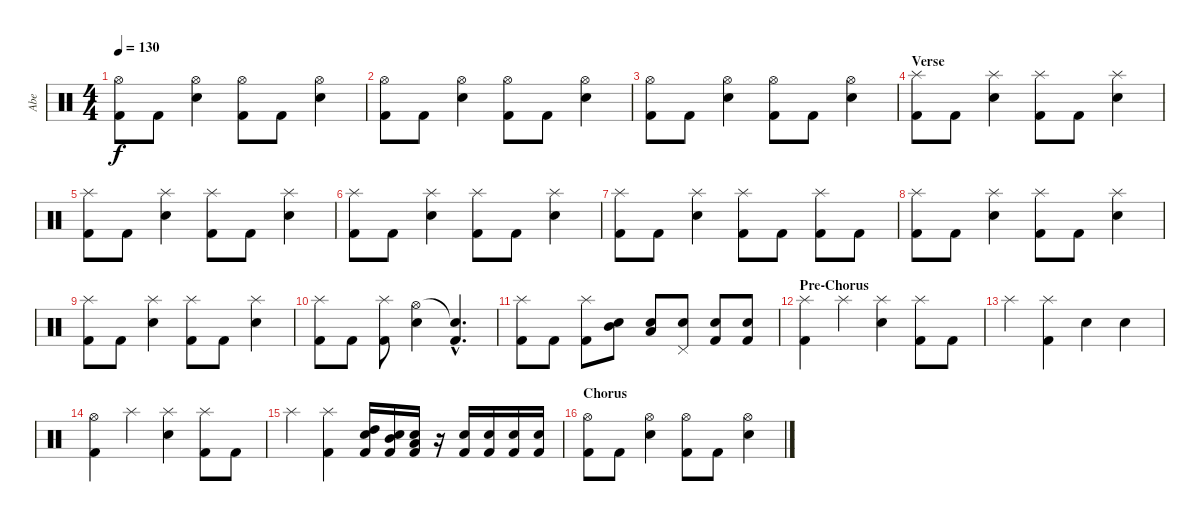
\track ("Abe" "Abe") {instrument percussion}
\staff {score}
\articulation defaults
\ts (4 4)
\tempo 130
\clef neutral
\ks c
("Hi-Hat (open)" "Kick (hit) 2").8{dy f} "Kick (hit) 2".8 ("Hi-Hat (open)" "Snare (hit) 2").4 ("Hi-Hat (open)" "Kick (hit) 2").8 "Kick (hit) 2".8 ("Hi-Hat (open)" "Snare (hit) 2").4 |
("Hi-Hat (open)" "Kick (hit) 2").8 "Kick (hit) 2".8 ("Hi-Hat (open)" "Snare (hit) 2").4 ("Hi-Hat (open)" "Kick (hit) 2").8 "Kick (hit) 2".8 ("Hi-Hat (open)" "Snare (hit) 2").4 |
("Hi-Hat (open)" "Kick (hit) 2").8 "Kick (hit) 2".8 ("Hi-Hat (open)" "Snare (hit) 2").4 ("Hi-Hat (open)" "Kick (hit) 2").8 "Kick (hit) 2".8 ("Hi-Hat (open)" "Snare (hit) 2").4 |
\section ("" "Verse")
("Splash (hit)" "Kick (hit) 2").8 "Kick (hit) 2".8 ("Splash (hit)" "Snare (hit) 2").4 ("Splash (hit)" "Kick (hit) 2").8 "Kick (hit) 2".8 ("Splash (hit)" "Snare (hit) 2").4 |
("Splash (hit)" "Kick (hit) 2").8 "Kick (hit) 2".8 ("Splash (hit)" "Snare (hit) 2").4 ("Splash (hit)" "Kick (hit) 2").8 "Kick (hit) 2".8 ("Splash (hit)" "Snare (hit) 2").4 |
("Splash (hit)" "Kick (hit) 2").8 "Kick (hit) 2".8 ("Splash (hit)" "Snare (hit) 2").4 ("Splash (hit)" "Kick (hit) 2").8 "Kick (hit) 2".8 ("Splash (hit)" "Snare (hit) 2").4 |
("Splash (hit)" "Kick (hit) 2").8 "Kick (hit) 2".8 ("Splash (hit)" "Snare (hit) 2").4 ("Splash (hit)" "Kick (hit) 2").8 "Kick (hit) 2".8 ("Splash (hit)" "Kick (hit) 2").8 "Kick (hit) 2".8 |
("Splash (hit)" "Kick (hit) 2").8 "Kick (hit) 2".8 ("Splash (hit)" "Snare (hit) 2").4 ("Splash (hit)" "Kick (hit) 2").8 "Kick (hit) 2".8 ("Splash (hit)" "Snare (hit) 2").4 |
("Splash (hit)" "Kick (hit) 2").8 "Kick (hit) 2".8 ("Splash (hit)" "Snare (hit) 2").4 ("Splash (hit)" "Kick (hit) 2").8 "Kick (hit) 2".8 ("Splash (hit)" "Snare (hit) 2").4 |
("Splash (hit)" "Kick (hit) 2").8 "Kick (hit) 2".8 ("Splash (hit)" "Kick (hit) 2").8 ("Hi-Hat (open)" "Snare (hit) 2").4 ("Snare (hit)"{hac t} "Kick (hit) 2"{hac}).4{d} |
("Splash (hit)" "Kick (hit) 2").8 "Kick (hit) 2".8 ("Splash (hit)" "Kick (hit) 2").8 ("Snare (hit) 2" "Mid Tom (hit)").8 ("Snare (hit) 2" "Low Tom (hit)").8 ("Snare (hit) 2" "Pedal Hi-Hat (hit)").8 ("Snare (hit) 2" "Kick (hit) 2").8 ("Snare (hit) 2" "Kick (hit) 2").8 |
\section ("" "Pre-Chorus")
("Splash (hit)" "Kick (hit) 2").4 "Splash (hit)".4 ("Splash (hit)" "Snare (hit) 2").4 ("Splash (hit)" "Kick (hit) 2").8 "Kick (hit) 2".8 |
"Splash (hit)".4 ("Splash (hit)" "Kick (hit) 2").4 "Snare (hit) 2".4 "Snare (hit) 2".4 |
("Hi-Hat (open)" "Kick (hit) 2").4 "Splash (hit)".4 ("Splash (hit)" "Snare (hit) 2").4 ("Splash (hit)" "Kick (hit) 2").8 "Kick (hit) 2".8 |
"Splash (hit)".4 ("Splash (hit)" "Kick (hit) 2").4 ("Kick (hit) 2" "Snare (hit) 2" "High Tom (hit)").16 ("Kick (hit) 2" "Snare (hit) 2" "Mid Tom (hit)").16 ("Kick (hit) 2" "Snare (hit) 2" "Low Tom (hit)").16 r.16 ("Kick (hit) 2" "Snare (hit) 2").16 ("Kick (hit) 2" "Snare (hit) 2").16 ("Kick (hit) 2" "Snare (hit) 2").16 ("Kick (hit) 2" "Snare (hit) 2").16 |
\section ("" "Chorus")
("Hi-Hat (open)" "Kick (hit) 2").8 "Kick (hit) 2".8 ("Hi-Hat (open)" "Snare (hit) 2").4 ("Hi-Hat (open)" "Kick (hit) 2").8 "Kick (hit) 2".8 ("Hi-Hat (open)" "Snare (hit) 2").4
